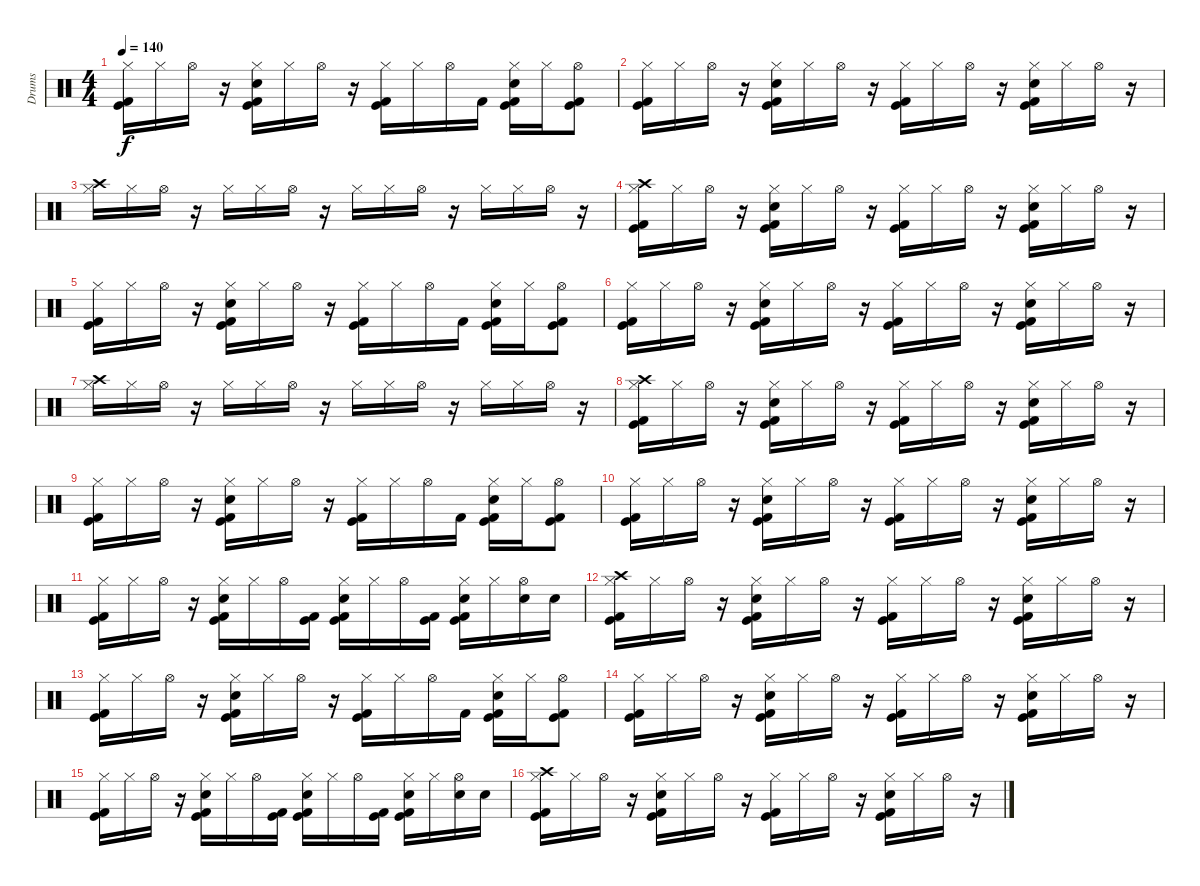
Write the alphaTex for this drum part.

\track ("Drums" "Drums") {instrument percussion}
\staff {score}
\articulation defaults
\ts (4 4)
\tempo 140
\clef neutral
\ks c
("Kick (hit) 2" "Hi-Hat (closed)" "Kick (hit)").16{dy f} "Hi-Hat (closed)".16 "Hi-Hat (open)".16 r.16 ("Kick (hit) 2" "Kick (hit)" "Hi-Hat (closed)" "Snare (hit) 2").16 "Hi-Hat (closed)".16 "Hi-Hat (open)".16 r.16 ("Kick (hit) 2" "Hi-Hat (closed)" "Kick (hit)").16 "Hi-Hat (closed)".16 "Hi-Hat (open)".16 "Kick (hit) 2".16 ("Hi-Hat (closed)" "Snare (hit) 2" "Kick (hit) 2" "Kick (hit)").16 "Hi-Hat (closed)".16 ("Hi-Hat (open)" "Kick (hit)" "Kick (hit) 2").8 |
("Kick (hit)" "Kick (hit) 2" "Hi-Hat (closed)").16 "Hi-Hat (closed)".16 "Hi-Hat (open)".16 r.16 ("Hi-Hat (closed)" "Kick (hit)" "Kick (hit) 2" "Snare (hit) 2").16 "Hi-Hat (closed)".16 "Hi-Hat (open)".16 r.16 ("Hi-Hat (closed)" "Kick (hit) 2" "Kick (hit)").16 "Hi-Hat (closed)".16 "Hi-Hat (open)".16 r.16 ("Kick (hit) 2" "Hi-Hat (closed)" "Kick (hit)" "Snare (hit) 2").16 "Hi-Hat (closed)".16 "Hi-Hat (open)".16 r.16 |
("Crash high (hit)" "Hi-Hat (closed)").16 "Hi-Hat (closed)".16 "Hi-Hat (open)".16 r.16 "Hi-Hat (closed)".16 "Hi-Hat (closed)".16 "Hi-Hat (open)".16 r.16 "Hi-Hat (closed)".16 "Hi-Hat (closed)".16 "Hi-Hat (open)".16 r.16 "Hi-Hat (closed)".16 "Hi-Hat (closed)".16 "Hi-Hat (open)".16 r.16 |
("Crash high (hit)" "Kick (hit)" "Kick (hit) 2" "Hi-Hat (closed)").16 "Hi-Hat (closed)".16 "Hi-Hat (open)".16 r.16 ("Snare (hit) 2" "Hi-Hat (closed)" "Kick (hit) 2" "Kick (hit)").16 "Hi-Hat (closed)".16 "Hi-Hat (open)".16 r.16 ("Kick (hit)" "Kick (hit) 2" "Hi-Hat (closed)").16 "Hi-Hat (closed)".16 "Hi-Hat (open)".16 r.16 ("Kick (hit) 2" "Hi-Hat (closed)" "Snare (hit) 2" "Kick (hit)").16 "Hi-Hat (closed)".16 "Hi-Hat (open)".16 r.16 |
("Kick (hit) 2" "Hi-Hat (closed)" "Kick (hit)").16 "Hi-Hat (closed)".16 "Hi-Hat (open)".16 r.16 ("Kick (hit) 2" "Kick (hit)" "Hi-Hat (closed)" "Snare (hit) 2").16 "Hi-Hat (closed)".16 "Hi-Hat (open)".16 r.16 ("Kick (hit) 2" "Hi-Hat (closed)" "Kick (hit)").16 "Hi-Hat (closed)".16 "Hi-Hat (open)".16 "Kick (hit) 2".16 ("Hi-Hat (closed)" "Snare (hit) 2" "Kick (hit) 2" "Kick (hit)").16 "Hi-Hat (closed)".16 ("Hi-Hat (open)" "Kick (hit)" "Kick (hit) 2").8 |
("Kick (hit)" "Kick (hit) 2" "Hi-Hat (closed)").16 "Hi-Hat (closed)".16 "Hi-Hat (open)".16 r.16 ("Hi-Hat (closed)" "Kick (hit)" "Kick (hit) 2" "Snare (hit) 2").16 "Hi-Hat (closed)".16 "Hi-Hat (open)".16 r.16 ("Hi-Hat (closed)" "Kick (hit) 2" "Kick (hit)").16 "Hi-Hat (closed)".16 "Hi-Hat (open)".16 r.16 ("Kick (hit) 2" "Hi-Hat (closed)" "Kick (hit)" "Snare (hit) 2").16 "Hi-Hat (closed)".16 "Hi-Hat (open)".16 r.16 |
("Crash high (hit)" "Hi-Hat (closed)").16 "Hi-Hat (closed)".16 "Hi-Hat (open)".16 r.16 "Hi-Hat (closed)".16 "Hi-Hat (closed)".16 "Hi-Hat (open)".16 r.16 "Hi-Hat (closed)".16 "Hi-Hat (closed)".16 "Hi-Hat (open)".16 r.16 "Hi-Hat (closed)".16 "Hi-Hat (closed)".16 "Hi-Hat (open)".16 r.16 |
("Kick (hit)" "Kick (hit) 2" "Hi-Hat (closed)" "Crash high (hit)").16 "Hi-Hat (closed)".16 "Hi-Hat (open)".16 r.16 ("Snare (hit) 2" "Kick (hit) 2" "Hi-Hat (closed)" "Kick (hit)").16 "Hi-Hat (closed)".16 "Hi-Hat (open)".16 r.16 ("Kick (hit) 2" "Kick (hit)" "Hi-Hat (closed)").16 "Hi-Hat (closed)".16 "Hi-Hat (open)".16 r.16 ("Kick (hit) 2" "Kick (hit)" "Snare (hit) 2" "Hi-Hat (closed)").16 "Hi-Hat (closed)".16 "Hi-Hat (open)".16 r.16 |
("Kick (hit) 2" "Hi-Hat (closed)" "Kick (hit)").16 "Hi-Hat (closed)".16 "Hi-Hat (open)".16 r.16 ("Hi-Hat (closed)" "Snare (hit) 2" "Kick (hit)" "Kick (hit) 2").16 "Hi-Hat (closed)".16 "Hi-Hat (open)".16 r.16 ("Kick (hit)" "Hi-Hat (closed)" "Kick (hit) 2").16 "Hi-Hat (closed)".16 "Hi-Hat (open)".16 "Kick (hit) 2".16 ("Snare (hit) 2" "Hi-Hat (closed)" "Kick (hit)" "Kick (hit) 2").16 "Hi-Hat (closed)".16 ("Hi-Hat (open)" "Kick (hit) 2" "Kick (hit)").8 |
("Kick (hit)" "Hi-Hat (closed)" "Kick (hit) 2").16 "Hi-Hat (closed)".16 "Hi-Hat (open)".16 r.16 ("Kick (hit)" "Hi-Hat (closed)" "Snare (hit) 2" "Kick (hit) 2").16 "Hi-Hat (closed)".16 "Hi-Hat (open)".16 r.16 ("Hi-Hat (closed)" "Kick (hit) 2" "Kick (hit)").16 "Hi-Hat (closed)".16 "Hi-Hat (open)".16 r.16 ("Kick (hit) 2" "Snare (hit) 2" "Hi-Hat (closed)" "Kick (hit)").16 "Hi-Hat (closed)".16 "Hi-Hat (open)".16 r.16 |
("Kick (hit) 2" "Hi-Hat (closed)" "Kick (hit)").16 "Hi-Hat (closed)".16 "Hi-Hat (open)".16 r.16 ("Kick (hit) 2" "Snare (hit) 2" "Hi-Hat (closed)" "Kick (hit)").16 "Hi-Hat (closed)".16 "Hi-Hat (open)".16 ("Kick (hit)" "Kick (hit) 2").16 ("Hi-Hat (closed)" "Kick (hit) 2" "Snare (hit) 2" "Kick (hit)").16 "Hi-Hat (closed)".16 "Hi-Hat (open)".16 ("Kick (hit)" "Kick (hit) 2").16 ("Snare (hit) 2" "Hi-Hat (closed)" "Kick (hit) 2" "Kick (hit)").16 "Hi-Hat (closed)".16 ("Hi-Hat (open)" "Snare (hit) 2").16 "Snare (hit) 2".16 |
("Hi-Hat (closed)" "Kick (hit)" "Kick (hit) 2" "Crash high (hit)").16 "Hi-Hat (closed)".16 "Hi-Hat (open)".16 r.16 ("Hi-Hat (closed)" "Snare (hit) 2" "Kick (hit)" "Kick (hit) 2").16 "Hi-Hat (closed)".16 "Hi-Hat (open)".16 r.16 ("Kick (hit)" "Kick (hit) 2" "Hi-Hat (closed)").16 "Hi-Hat (closed)".16 "Hi-Hat (open)".16 r.16 ("Kick (hit) 2" "Kick (hit)" "Snare (hit) 2" "Hi-Hat (closed)").16 "Hi-Hat (closed)".16 "Hi-Hat (open)".16 r.16 |
("Kick (hit)" "Kick (hit) 2" "Hi-Hat (closed)").16 "Hi-Hat (closed)".16 "Hi-Hat (open)".16 r.16 ("Hi-Hat (closed)" "Kick (hit) 2" "Snare (hit) 2" "Kick (hit)").16 "Hi-Hat (closed)".16 "Hi-Hat (open)".16 r.16 ("Hi-Hat (closed)" "Kick (hit) 2" "Kick (hit)").16 "Hi-Hat (closed)".16 "Hi-Hat (open)".16 "Kick (hit) 2".16 ("Hi-Hat (closed)" "Snare (hit) 2" "Kick (hit)" "Kick (hit) 2").16 "Hi-Hat (closed)".16 ("Kick (hit)" "Kick (hit) 2" "Hi-Hat (open)").8 |
("Kick (hit) 2" "Kick (hit)" "Hi-Hat (closed)").16 "Hi-Hat (closed)".16 "Hi-Hat (open)".16 r.16 ("Kick (hit)" "Hi-Hat (closed)" "Snare (hit) 2" "Kick (hit) 2").16 "Hi-Hat (closed)".16 "Hi-Hat (open)".16 r.16 ("Hi-Hat (closed)" "Kick (hit) 2" "Kick (hit)").16 "Hi-Hat (closed)".16 "Hi-Hat (open)".16 r.16 ("Snare (hit) 2" "Kick (hit)" "Hi-Hat (closed)" "Kick (hit) 2").16 "Hi-Hat (closed)".16 "Hi-Hat (open)".16 r.16 |
("Kick (hit)" "Hi-Hat (closed)" "Kick (hit) 2").16 "Hi-Hat (closed)".16 "Hi-Hat (open)".16 r.16 ("Hi-Hat (closed)" "Snare (hit) 2" "Kick (hit) 2" "Kick (hit)").16 "Hi-Hat (closed)".16 "Hi-Hat (open)".16 ("Kick (hit)" "Kick (hit) 2").16 ("Hi-Hat (closed)" "Kick (hit) 2" "Snare (hit) 2" "Kick (hit)").16 "Hi-Hat (closed)".16 "Hi-Hat (open)".16 ("Kick (hit) 2" "Kick (hit)").16 ("Snare (hit) 2" "Kick (hit)" "Kick (hit) 2" "Hi-Hat (closed)").16 "Hi-Hat (closed)".16 ("Snare (hit) 2" "Hi-Hat (open)").16 "Snare (hit) 2".16 |
("Kick (hit) 2" "Hi-Hat (closed)" "Crash high (hit)" "Kick (hit)").16 "Hi-Hat (closed)".16 "Hi-Hat (open)".16 r.16 ("Kick (hit) 2" "Kick (hit)" "Snare (hit) 2" "Hi-Hat (closed)").16 "Hi-Hat (closed)".16 "Hi-Hat (open)".16 r.16 ("Kick (hit) 2" "Kick (hit)" "Hi-Hat (closed)").16 "Hi-Hat (closed)".16 "Hi-Hat (open)".16 r.16 ("Hi-Hat (closed)" "Kick (hit) 2" "Kick (hit)" "Snare (hit) 2").16 "Hi-Hat (closed)".16 "Hi-Hat (open)".16 r.16
